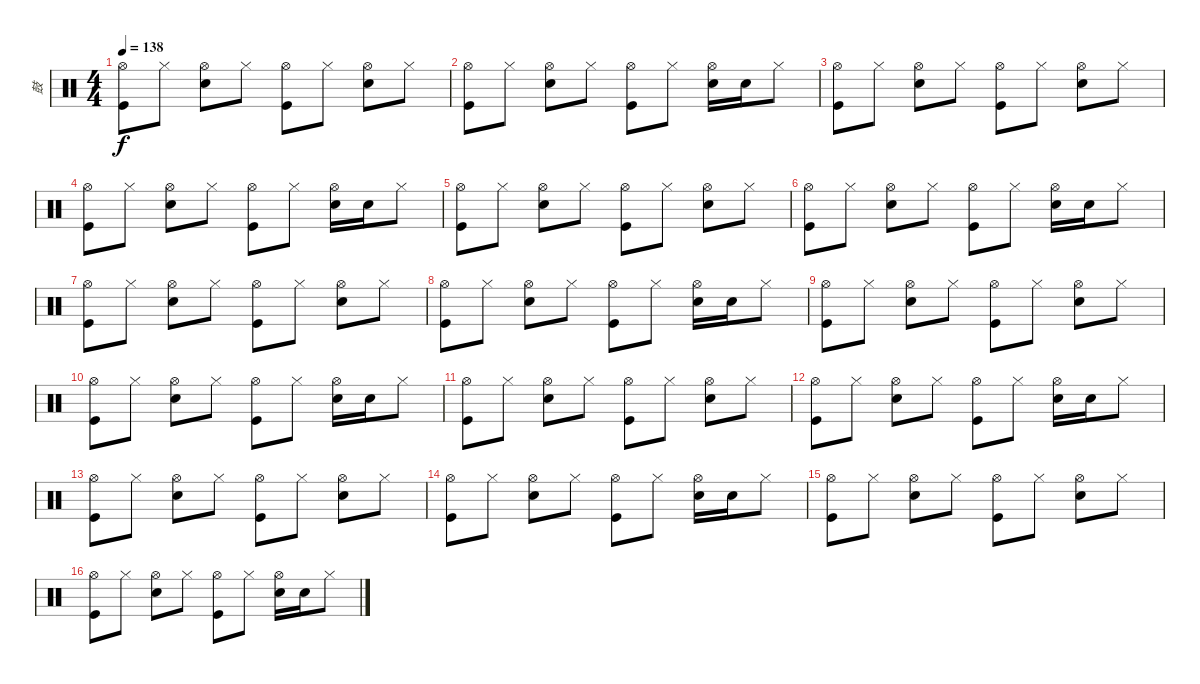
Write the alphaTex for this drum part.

\track ("鼓" "鼓") {instrument percussion}
\staff {score}
\articulation defaults
\ts (4 4)
\tempo 138
\clef neutral
\ks c
("Hi-Hat (open)" "Kick (hit)").8{dy f} "Hi-Hat (closed)".8 ("Hi-Hat (open)" "Snare (hit) 2").8 "Hi-Hat (closed)".8 ("Hi-Hat (open)" "Kick (hit)").8 "Hi-Hat (closed)".8 ("Hi-Hat (open)" "Snare (hit) 2").8 "Hi-Hat (closed)".8 |
("Hi-Hat (open)" "Kick (hit)").8 "Hi-Hat (closed)".8 ("Hi-Hat (open)" "Snare (hit) 2").8 "Hi-Hat (closed)".8 ("Hi-Hat (open)" "Kick (hit)").8 "Hi-Hat (closed)".8 ("Hi-Hat (open)" "Snare (hit) 2").16 "Snare (hit) 2".16 "Hi-Hat (closed)".8 |
("Hi-Hat (open)" "Kick (hit)").8 "Hi-Hat (closed)".8 ("Hi-Hat (open)" "Snare (hit) 2").8 "Hi-Hat (closed)".8 ("Hi-Hat (open)" "Kick (hit)").8 "Hi-Hat (closed)".8 ("Hi-Hat (open)" "Snare (hit) 2").8 "Hi-Hat (closed)".8 |
("Hi-Hat (open)" "Kick (hit)").8 "Hi-Hat (closed)".8 ("Hi-Hat (open)" "Snare (hit) 2").8 "Hi-Hat (closed)".8 ("Hi-Hat (open)" "Kick (hit)").8 "Hi-Hat (closed)".8 ("Hi-Hat (open)" "Snare (hit) 2").16 "Snare (hit) 2".16 "Hi-Hat (closed)".8 |
("Hi-Hat (open)" "Kick (hit)").8 "Hi-Hat (closed)".8 ("Hi-Hat (open)" "Snare (hit) 2").8 "Hi-Hat (closed)".8 ("Hi-Hat (open)" "Kick (hit)").8 "Hi-Hat (closed)".8 ("Hi-Hat (open)" "Snare (hit) 2").8 "Hi-Hat (closed)".8 |
("Hi-Hat (open)" "Kick (hit)").8 "Hi-Hat (closed)".8 ("Hi-Hat (open)" "Snare (hit) 2").8 "Hi-Hat (closed)".8 ("Hi-Hat (open)" "Kick (hit)").8 "Hi-Hat (closed)".8 ("Hi-Hat (open)" "Snare (hit) 2").16 "Snare (hit) 2".16 "Hi-Hat (closed)".8 |
("Hi-Hat (open)" "Kick (hit)").8 "Hi-Hat (closed)".8 ("Hi-Hat (open)" "Snare (hit) 2").8 "Hi-Hat (closed)".8 ("Hi-Hat (open)" "Kick (hit)").8 "Hi-Hat (closed)".8 ("Hi-Hat (open)" "Snare (hit) 2").8 "Hi-Hat (closed)".8 |
("Hi-Hat (open)" "Kick (hit)").8 "Hi-Hat (closed)".8 ("Hi-Hat (open)" "Snare (hit) 2").8 "Hi-Hat (closed)".8 ("Hi-Hat (open)" "Kick (hit)").8 "Hi-Hat (closed)".8 ("Hi-Hat (open)" "Snare (hit) 2").16 "Snare (hit) 2".16 "Hi-Hat (closed)".8 |
("Hi-Hat (open)" "Kick (hit)").8 "Hi-Hat (closed)".8 ("Hi-Hat (open)" "Snare (hit) 2").8 "Hi-Hat (closed)".8 ("Hi-Hat (open)" "Kick (hit)").8 "Hi-Hat (closed)".8 ("Hi-Hat (open)" "Snare (hit) 2").8 "Hi-Hat (closed)".8 |
("Hi-Hat (open)" "Kick (hit)").8 "Hi-Hat (closed)".8 ("Hi-Hat (open)" "Snare (hit) 2").8 "Hi-Hat (closed)".8 ("Hi-Hat (open)" "Kick (hit)").8 "Hi-Hat (closed)".8 ("Hi-Hat (open)" "Snare (hit) 2").16 "Snare (hit) 2".16 "Hi-Hat (closed)".8 |
("Hi-Hat (open)" "Kick (hit)").8 "Hi-Hat (closed)".8 ("Hi-Hat (open)" "Snare (hit) 2").8 "Hi-Hat (closed)".8 ("Hi-Hat (open)" "Kick (hit)").8 "Hi-Hat (closed)".8 ("Hi-Hat (open)" "Snare (hit) 2").8 "Hi-Hat (closed)".8 |
("Hi-Hat (open)" "Kick (hit)").8 "Hi-Hat (closed)".8 ("Hi-Hat (open)" "Snare (hit) 2").8 "Hi-Hat (closed)".8 ("Hi-Hat (open)" "Kick (hit)").8 "Hi-Hat (closed)".8 ("Hi-Hat (open)" "Snare (hit) 2").16 "Snare (hit) 2".16 "Hi-Hat (closed)".8 |
("Hi-Hat (open)" "Kick (hit)").8 "Hi-Hat (closed)".8 ("Hi-Hat (open)" "Snare (hit) 2").8 "Hi-Hat (closed)".8 ("Hi-Hat (open)" "Kick (hit)").8 "Hi-Hat (closed)".8 ("Hi-Hat (open)" "Snare (hit) 2").8 "Hi-Hat (closed)".8 |
("Hi-Hat (open)" "Kick (hit)").8 "Hi-Hat (closed)".8 ("Hi-Hat (open)" "Snare (hit) 2").8 "Hi-Hat (closed)".8 ("Hi-Hat (open)" "Kick (hit)").8 "Hi-Hat (closed)".8 ("Hi-Hat (open)" "Snare (hit) 2").16 "Snare (hit) 2".16 "Hi-Hat (closed)".8 |
("Hi-Hat (open)" "Kick (hit)").8 "Hi-Hat (closed)".8 ("Hi-Hat (open)" "Snare (hit) 2").8 "Hi-Hat (closed)".8 ("Hi-Hat (open)" "Kick (hit)").8 "Hi-Hat (closed)".8 ("Hi-Hat (open)" "Snare (hit) 2").8 "Hi-Hat (closed)".8 |
("Hi-Hat (open)" "Kick (hit)").8 "Hi-Hat (closed)".8 ("Hi-Hat (open)" "Snare (hit) 2").8 "Hi-Hat (closed)".8 ("Hi-Hat (open)" "Kick (hit)").8 "Hi-Hat (closed)".8 ("Hi-Hat (open)" "Snare (hit) 2").16 "Snare (hit) 2".16 "Hi-Hat (closed)".8
